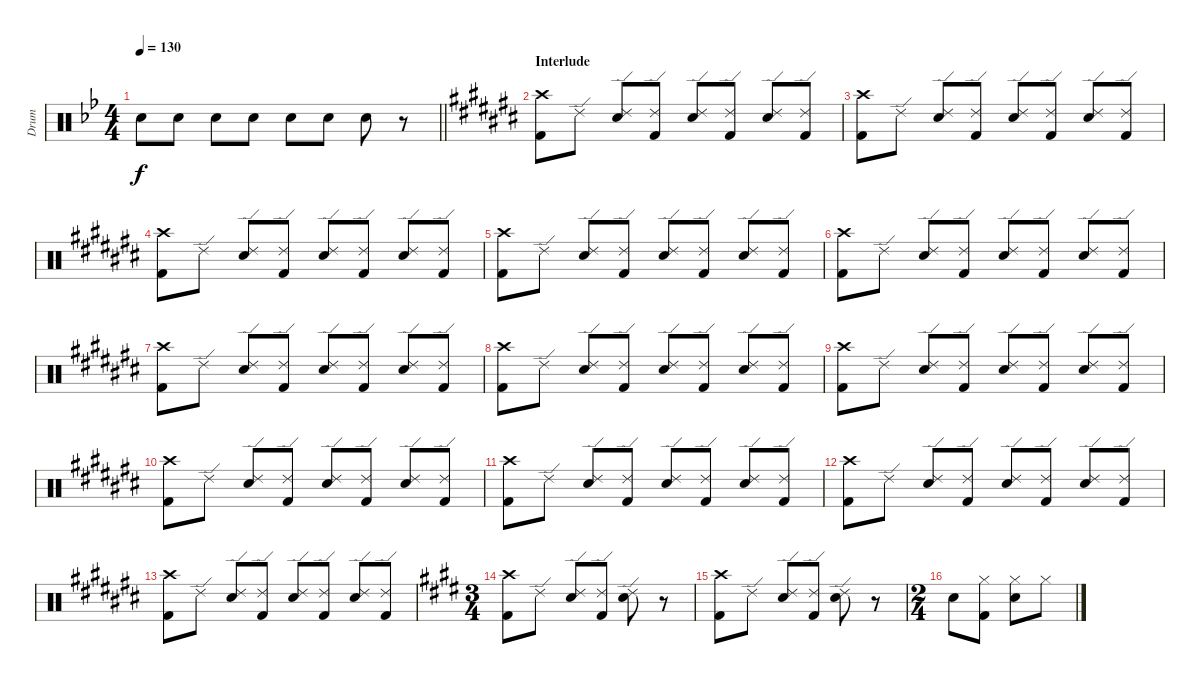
\track ("Drum" "Drum") {instrument percussion}
\staff {score}
\articulation defaults
\ts (4 4)
\tempo 130
\clef neutral
\barLineRight lightlight
\ks bb "Electric Snare (hit)".8{dy f} "Electric Snare (hit)".8 "Electric Snare (hit)".8 "Electric Snare (hit)".8 "Electric Snare (hit)".8 "Electric Snare (hit)".8 "Electric Snare (hit)".8
r.8 |
\section ("" "Interlude")
\ks c#
("Kick (hit) 2" "Crash high (hit)").8 "Ride (edge) 2".8 ("Ride (edge) 2" "Electric Snare (hit)").8 ("Ride (edge) 2" "Kick (hit) 2").8 ("Electric Snare (hit)" "Ride (edge) 2").8 ("Ride (edge) 2" "Kick (hit) 2").8 ("Electric Snare (hit)" "Ride (edge) 2").8 ("Kick (hit) 2" "Ride (edge) 2").8 |
("Kick (hit) 2" "Crash high (hit)").8 "Ride (edge) 2".8 ("Ride (edge) 2" "Electric Snare (hit)").8 ("Ride (edge) 2" "Kick (hit) 2").8 ("Electric Snare (hit)" "Ride (edge) 2").8 ("Ride (edge) 2" "Kick (hit) 2").8 ("Electric Snare (hit)" "Ride (edge) 2").8 ("Kick (hit) 2" "Ride (edge) 2").8 |
("Kick (hit) 2" "Crash high (hit)").8 "Ride (edge) 2".8 ("Ride (edge) 2" "Electric Snare (hit)").8 ("Ride (edge) 2" "Kick (hit) 2").8 ("Electric Snare (hit)" "Ride (edge) 2").8 ("Ride (edge) 2" "Kick (hit) 2").8 ("Electric Snare (hit)" "Ride (edge) 2").8 ("Kick (hit) 2" "Ride (edge) 2").8 |
("Kick (hit) 2" "Crash high (hit)").8 "Ride (edge) 2".8 ("Ride (edge) 2" "Electric Snare (hit)").8 ("Ride (edge) 2" "Kick (hit) 2").8 ("Electric Snare (hit)" "Ride (edge) 2").8 ("Ride (edge) 2" "Kick (hit) 2").8 ("Electric Snare (hit)" "Ride (edge) 2").8 ("Kick (hit) 2" "Ride (edge) 2").8 |
("Kick (hit) 2" "Crash high (hit)").8 "Ride (edge) 2".8 ("Ride (edge) 2" "Electric Snare (hit)").8 ("Ride (edge) 2" "Kick (hit) 2").8 ("Electric Snare (hit)" "Ride (edge) 2").8 ("Ride (edge) 2" "Kick (hit) 2").8 ("Electric Snare (hit)" "Ride (edge) 2").8 ("Kick (hit) 2" "Ride (edge) 2").8 |
("Kick (hit) 2" "Crash high (hit)").8 "Ride (edge) 2".8 ("Ride (edge) 2" "Electric Snare (hit)").8 ("Ride (edge) 2" "Kick (hit) 2").8 ("Electric Snare (hit)" "Ride (edge) 2").8 ("Ride (edge) 2" "Kick (hit) 2").8 ("Electric Snare (hit)" "Ride (edge) 2").8 ("Kick (hit) 2" "Ride (edge) 2").8 |
("Kick (hit) 2" "Crash high (hit)").8 "Ride (edge) 2".8 ("Ride (edge) 2" "Electric Snare (hit)").8 ("Ride (edge) 2" "Kick (hit) 2").8 ("Electric Snare (hit)" "Ride (edge) 2").8 ("Ride (edge) 2" "Kick (hit) 2").8 ("Electric Snare (hit)" "Ride (edge) 2").8 ("Kick (hit) 2" "Ride (edge) 2").8 |
("Kick (hit) 2" "Crash high (hit)").8 "Ride (edge) 2".8 ("Ride (edge) 2" "Electric Snare (hit)").8 ("Ride (edge) 2" "Kick (hit) 2").8 ("Electric Snare (hit)" "Ride (edge) 2").8 ("Ride (edge) 2" "Kick (hit) 2").8 ("Electric Snare (hit)" "Ride (edge) 2").8 ("Kick (hit) 2" "Ride (edge) 2").8 |
("Kick (hit) 2" "Crash high (hit)").8 "Ride (edge) 2".8 ("Ride (edge) 2" "Electric Snare (hit)").8 ("Ride (edge) 2" "Kick (hit) 2").8 ("Electric Snare (hit)" "Ride (edge) 2").8 ("Ride (edge) 2" "Kick (hit) 2").8 ("Electric Snare (hit)" "Ride (edge) 2").8 ("Kick (hit) 2" "Ride (edge) 2").8 |
("Kick (hit) 2" "Crash high (hit)").8 "Ride (edge) 2".8 ("Ride (edge) 2" "Electric Snare (hit)").8 ("Ride (edge) 2" "Kick (hit) 2").8 ("Electric Snare (hit)" "Ride (edge) 2").8 ("Ride (edge) 2" "Kick (hit) 2").8 ("Electric Snare (hit)" "Ride (edge) 2").8 ("Kick (hit) 2" "Ride (edge) 2").8 |
("Kick (hit) 2" "Crash high (hit)").8 "Ride (edge) 2".8 ("Ride (edge) 2" "Electric Snare (hit)").8 ("Ride (edge) 2" "Kick (hit) 2").8 ("Electric Snare (hit)" "Ride (edge) 2").8 ("Ride (edge) 2" "Kick (hit) 2").8 ("Electric Snare (hit)" "Ride (edge) 2").8 ("Kick (hit) 2" "Ride (edge) 2").8 |
("Kick (hit) 2" "Crash high (hit)").8 "Ride (edge) 2".8 ("Ride (edge) 2" "Electric Snare (hit)").8 ("Ride (edge) 2" "Kick (hit) 2").8 ("Electric Snare (hit)" "Ride (edge) 2").8 ("Ride (edge) 2" "Kick (hit) 2").8 ("Electric Snare (hit)" "Ride (edge) 2").8 ("Kick (hit) 2" "Ride (edge) 2").8 |
\ts (3 4)
\ks e
("Kick (hit) 2" "Crash high (hit)").8 "Ride (edge) 2".8 ("Ride (edge) 2" "Electric Snare (hit)").8 ("Ride (edge) 2" "Kick (hit) 2").8 ("Electric Snare (hit)" "Ride (edge) 2").8 r.8 |
("Kick (hit) 2" "Crash high (hit)").8 "Ride (edge) 2".8 ("Ride (edge) 2" "Electric Snare (hit)").8 ("Ride (edge) 2" "Kick (hit) 2").8 ("Electric Snare (hit)" "Ride (edge) 2").8 r.8 |
\ts (2 4)
"Electric Snare (hit)".8 ("Kick (hit) 2" "Hi-Hat (closed)").8 ("Electric Snare (hit)" "Hi-Hat (closed)").8 "Hi-Hat (closed)".8
